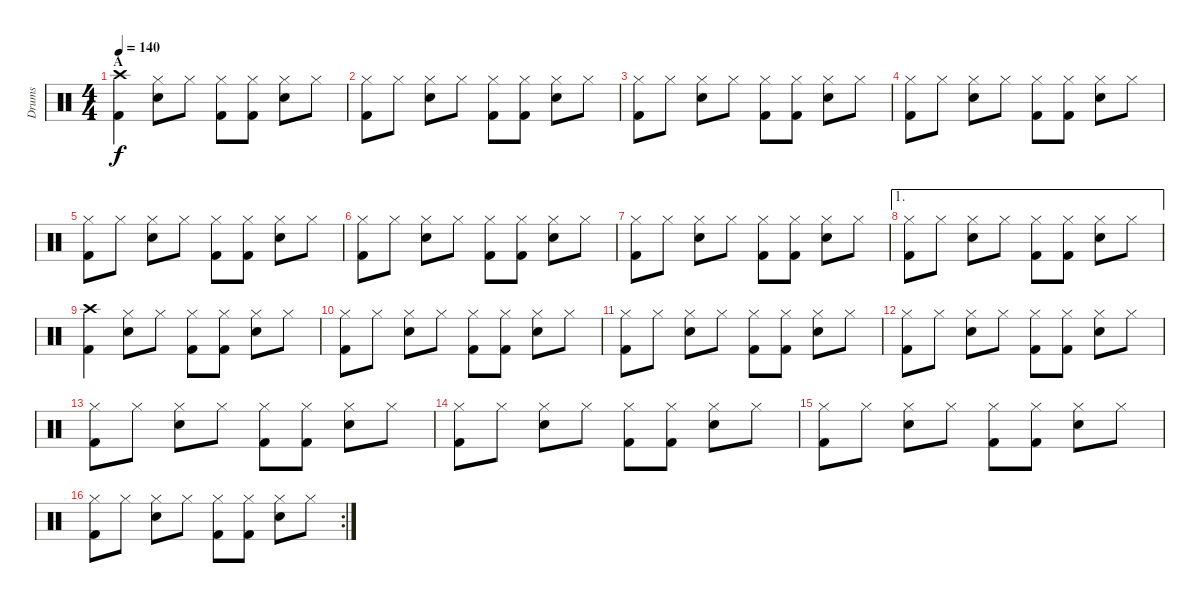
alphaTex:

\track ("Drums" "Drums") {instrument percussion}
\staff {score}
\articulation defaults
\ts (4 4)
\section ("" "A")
\tempo 140
\clef neutral
\ks c
("Crash high (hit)" "Kick (hit) 2").4{dy f} ("Hi-Hat (closed)" "Snare (hit) 2").8 "Hi-Hat (closed)".8 ("Hi-Hat (closed)" "Kick (hit) 2").8 ("Hi-Hat (closed)" "Kick (hit) 2").8 ("Hi-Hat (closed)" "Snare (hit) 2").8 "Hi-Hat (closed)".8 |
("Hi-Hat (closed)" "Kick (hit) 2").8 "Hi-Hat (closed)".8 ("Hi-Hat (closed)" "Snare (hit) 2").8 "Hi-Hat (closed)".8 ("Hi-Hat (closed)" "Kick (hit) 2").8 ("Hi-Hat (closed)" "Kick (hit) 2").8 ("Hi-Hat (closed)" "Snare (hit) 2").8 "Hi-Hat (closed)".8 |
("Hi-Hat (closed)" "Kick (hit) 2").8 "Hi-Hat (closed)".8 ("Hi-Hat (closed)" "Snare (hit) 2").8 "Hi-Hat (closed)".8 ("Hi-Hat (closed)" "Kick (hit) 2").8 ("Hi-Hat (closed)" "Kick (hit) 2").8 ("Hi-Hat (closed)" "Snare (hit) 2").8 "Hi-Hat (closed)".8 |
("Hi-Hat (closed)" "Kick (hit) 2").8 "Hi-Hat (closed)".8 ("Hi-Hat (closed)" "Snare (hit) 2").8 "Hi-Hat (closed)".8 ("Hi-Hat (closed)" "Kick (hit) 2").8 ("Hi-Hat (closed)" "Kick (hit) 2").8 ("Hi-Hat (closed)" "Snare (hit) 2").8 "Hi-Hat (closed)".8 |
("Hi-Hat (closed)" "Kick (hit) 2").8 "Hi-Hat (closed)".8 ("Hi-Hat (closed)" "Snare (hit) 2").8 "Hi-Hat (closed)".8 ("Hi-Hat (closed)" "Kick (hit) 2").8 ("Hi-Hat (closed)" "Kick (hit) 2").8 ("Hi-Hat (closed)" "Snare (hit) 2").8 "Hi-Hat (closed)".8 |
("Hi-Hat (closed)" "Kick (hit) 2").8 "Hi-Hat (closed)".8 ("Hi-Hat (closed)" "Snare (hit) 2").8 "Hi-Hat (closed)".8 ("Hi-Hat (closed)" "Kick (hit) 2").8 ("Hi-Hat (closed)" "Kick (hit) 2").8 ("Hi-Hat (closed)" "Snare (hit) 2").8 "Hi-Hat (closed)".8 |
("Hi-Hat (closed)" "Kick (hit) 2").8 "Hi-Hat (closed)".8 ("Hi-Hat (closed)" "Snare (hit) 2").8 "Hi-Hat (closed)".8 ("Hi-Hat (closed)" "Kick (hit) 2").8 ("Hi-Hat (closed)" "Kick (hit) 2").8 ("Hi-Hat (closed)" "Snare (hit) 2").8 "Hi-Hat (closed)".8 |
\ae 1
("Hi-Hat (closed)" "Kick (hit) 2").8 "Hi-Hat (closed)".8 ("Hi-Hat (closed)" "Snare (hit) 2").8 "Hi-Hat (closed)".8 ("Hi-Hat (closed)" "Kick (hit) 2").8 ("Hi-Hat (closed)" "Kick (hit) 2").8 ("Hi-Hat (closed)" "Snare (hit) 2").8 "Hi-Hat (closed)".8 |
("Crash high (hit)" "Kick (hit) 2").4 ("Hi-Hat (closed)" "Snare (hit) 2").8 "Hi-Hat (closed)".8 ("Hi-Hat (closed)" "Kick (hit) 2").8 ("Hi-Hat (closed)" "Kick (hit) 2").8 ("Hi-Hat (closed)" "Snare (hit) 2").8 "Hi-Hat (closed)".8 |
("Hi-Hat (closed)" "Kick (hit) 2").8 "Hi-Hat (closed)".8 ("Hi-Hat (closed)" "Snare (hit) 2").8 "Hi-Hat (closed)".8 ("Hi-Hat (closed)" "Kick (hit) 2").8 ("Hi-Hat (closed)" "Kick (hit) 2").8 ("Hi-Hat (closed)" "Snare (hit) 2").8 "Hi-Hat (closed)".8 |
("Hi-Hat (closed)" "Kick (hit) 2").8 "Hi-Hat (closed)".8 ("Hi-Hat (closed)" "Snare (hit) 2").8 "Hi-Hat (closed)".8 ("Hi-Hat (closed)" "Kick (hit) 2").8 ("Hi-Hat (closed)" "Kick (hit) 2").8 ("Hi-Hat (closed)" "Snare (hit) 2").8 "Hi-Hat (closed)".8 |
("Hi-Hat (closed)" "Kick (hit) 2").8 "Hi-Hat (closed)".8 ("Hi-Hat (closed)" "Snare (hit) 2").8 "Hi-Hat (closed)".8 ("Hi-Hat (closed)" "Kick (hit) 2").8 ("Hi-Hat (closed)" "Kick (hit) 2").8 ("Hi-Hat (closed)" "Snare (hit) 2").8 "Hi-Hat (closed)".8 |
("Hi-Hat (closed)" "Kick (hit) 2").8 "Hi-Hat (closed)".8 ("Hi-Hat (closed)" "Snare (hit) 2").8 "Hi-Hat (closed)".8 ("Hi-Hat (closed)" "Kick (hit) 2").8 ("Hi-Hat (closed)" "Kick (hit) 2").8 ("Hi-Hat (closed)" "Snare (hit) 2").8 "Hi-Hat (closed)".8 |
("Hi-Hat (closed)" "Kick (hit) 2").8 "Hi-Hat (closed)".8 ("Hi-Hat (closed)" "Snare (hit) 2").8 "Hi-Hat (closed)".8 ("Hi-Hat (closed)" "Kick (hit) 2").8 ("Hi-Hat (closed)" "Kick (hit) 2").8 ("Hi-Hat (closed)" "Snare (hit) 2").8 "Hi-Hat (closed)".8 |
("Hi-Hat (closed)" "Kick (hit) 2").8 "Hi-Hat (closed)".8 ("Hi-Hat (closed)" "Snare (hit) 2").8 "Hi-Hat (closed)".8 ("Hi-Hat (closed)" "Kick (hit) 2").8 ("Hi-Hat (closed)" "Kick (hit) 2").8 ("Hi-Hat (closed)" "Snare (hit) 2").8 "Hi-Hat (closed)".8 |
\rc 2
("Hi-Hat (closed)" "Kick (hit) 2").8 "Hi-Hat (closed)".8 ("Hi-Hat (closed)" "Snare (hit) 2").8 "Hi-Hat (closed)".8 ("Hi-Hat (closed)" "Kick (hit) 2").8 ("Hi-Hat (closed)" "Kick (hit) 2").8 ("Hi-Hat (closed)" "Snare (hit) 2").8 "Hi-Hat (closed)".8
